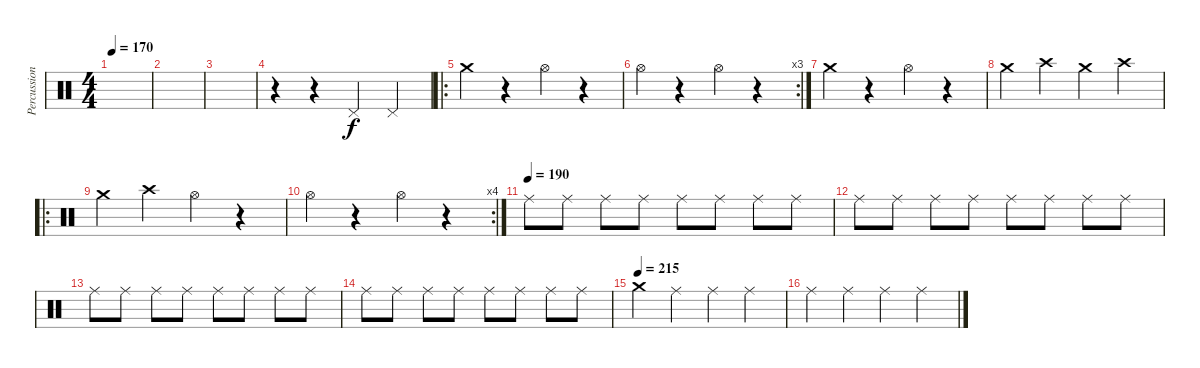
\track ("Percussion" "Percussion") {instrument percussion}
\staff {score}
\articulation defaults
\ts (4 4)
\tempo 170
\clef neutral
\ks c
|
|
|
r.4 r.4 "Pedal Hi-Hat (hit)".4 "Pedal Hi-Hat (hit)".4 |
\ro "Crash medium (hit)".4
r.4 "Hi-Hat (open)".4 r.4 |
\rc 3 "Hi-Hat (open)".4
r.4 "Hi-Hat (open)".4 r.4 |
"Crash medium (hit)".4 r.4 "Hi-Hat (open)".4 r.4 |
"Crash medium (hit)".4 "Crash high (hit)".4 "Crash medium (hit)".4 "Crash high (hit)".4 |
\ro "Crash medium (hit)".4 "Crash high (hit)".4 "Hi-Hat (open)".4
r.4 |
\rc 4 "Hi-Hat (open)".4
r.4 "Hi-Hat (open)".4 r.4 |
\tempo (190)
"Ride (middle)".8 "Ride (middle)".8 "Ride (middle)".8 "Ride (middle)".8 "Ride (middle)".8 "Ride (middle)".8 "Ride (middle)".8 "Ride (middle)".8 |
"Ride (middle)".8 "Ride (middle)".8 "Ride (middle)".8 "Ride (middle)".8 "Ride (middle)".8 "Ride (middle)".8 "Ride (middle)".8 "Ride (middle)".8 |
"Ride (middle)".8 "Ride (middle)".8 "Ride (middle)".8 "Ride (middle)".8 "Ride (middle)".8 "Ride (middle)".8 "Ride (middle)".8 "Ride (middle)".8 |
"Ride (middle)".8 "Ride (middle)".8 "Ride (middle)".8 "Ride (middle)".8 "Ride (middle)".8 "Ride (middle)".8 "Ride (middle)".8 "Ride (middle)".8 |
\tempo (215)
"Crash medium (hit)".4 "Ride (middle)".4 "Ride (middle)".4 "Ride (middle)".4 |
"Ride (middle)".4 "Ride (middle)".4 "Ride (middle)".4 "Ride (middle)".4
